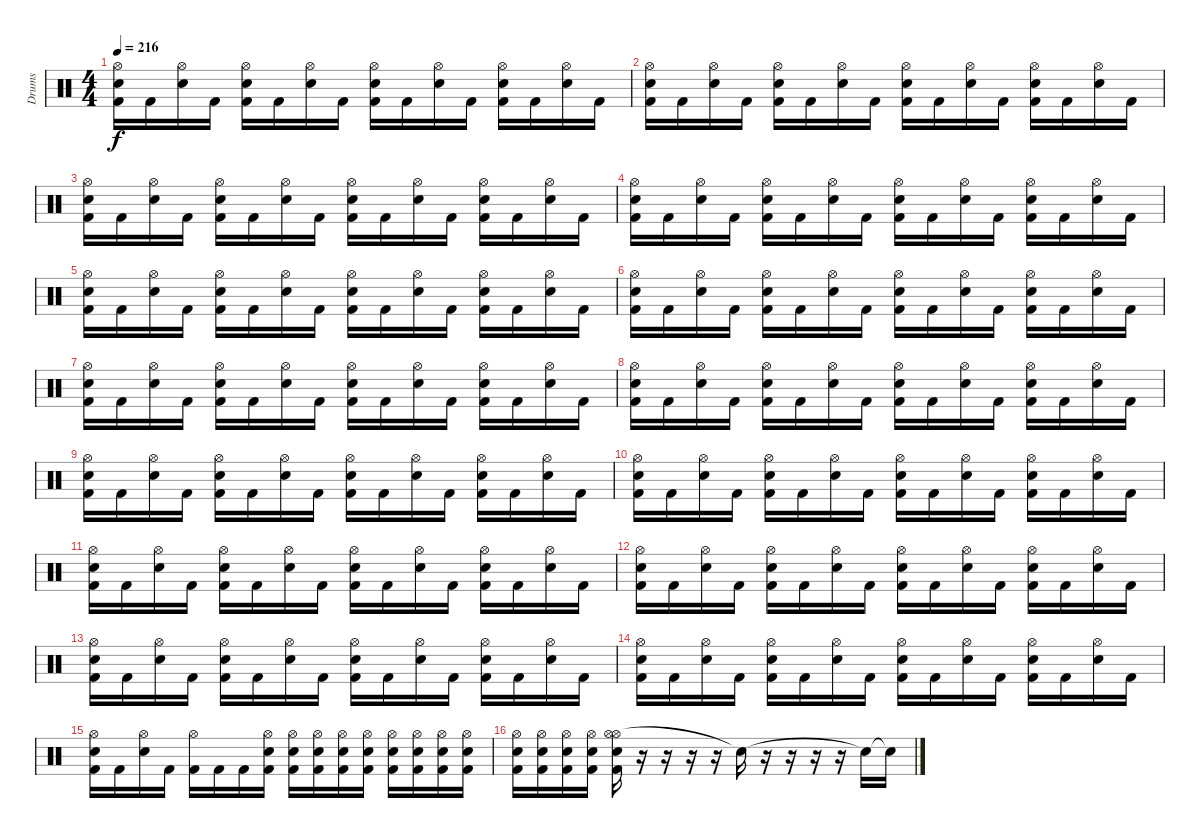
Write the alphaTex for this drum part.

\track ("Drums" "Drums") {instrument percussion}
\staff {score}
\articulation defaults
\ts (4 4)
\tempo 216
\clef neutral
\ks c
("Hi-Hat (open)" "Snare (hit) 2" "Kick (hit) 2").16{dy f} "Kick (hit) 2".16 ("Hi-Hat (open)" "Snare (hit) 2").16 "Kick (hit) 2".16 ("Hi-Hat (open)" "Snare (hit) 2" "Kick (hit) 2").16 "Kick (hit) 2".16 ("Hi-Hat (open)" "Snare (hit) 2").16 "Kick (hit) 2".16 ("Hi-Hat (open)" "Snare (hit) 2" "Kick (hit) 2").16 "Kick (hit) 2".16 ("Hi-Hat (open)" "Snare (hit) 2").16 "Kick (hit) 2".16 ("Hi-Hat (open)" "Snare (hit) 2" "Kick (hit) 2").16 "Kick (hit) 2".16 ("Hi-Hat (open)" "Snare (hit) 2").16 "Kick (hit) 2".16 |
("Hi-Hat (open)" "Snare (hit) 2" "Kick (hit) 2").16 "Kick (hit) 2".16 ("Hi-Hat (open)" "Snare (hit) 2").16 "Kick (hit) 2".16 ("Hi-Hat (open)" "Snare (hit) 2" "Kick (hit) 2").16 "Kick (hit) 2".16 ("Hi-Hat (open)" "Snare (hit) 2").16 "Kick (hit) 2".16 ("Hi-Hat (open)" "Snare (hit) 2" "Kick (hit) 2").16 "Kick (hit) 2".16 ("Hi-Hat (open)" "Snare (hit) 2").16 "Kick (hit) 2".16 ("Hi-Hat (open)" "Snare (hit) 2" "Kick (hit) 2").16 "Kick (hit) 2".16 ("Hi-Hat (open)" "Snare (hit) 2").16 "Kick (hit) 2".16 |
("Hi-Hat (open)" "Snare (hit) 2" "Kick (hit) 2").16 "Kick (hit) 2".16 ("Hi-Hat (open)" "Snare (hit) 2").16 "Kick (hit) 2".16 ("Hi-Hat (open)" "Snare (hit) 2" "Kick (hit) 2").16 "Kick (hit) 2".16 ("Hi-Hat (open)" "Snare (hit) 2").16 "Kick (hit) 2".16 ("Hi-Hat (open)" "Snare (hit) 2" "Kick (hit) 2").16 "Kick (hit) 2".16 ("Hi-Hat (open)" "Snare (hit) 2").16 "Kick (hit) 2".16 ("Hi-Hat (open)" "Snare (hit) 2" "Kick (hit) 2").16 "Kick (hit) 2".16 ("Hi-Hat (open)" "Snare (hit) 2").16 "Kick (hit) 2".16 |
("Hi-Hat (open)" "Snare (hit) 2" "Kick (hit) 2").16 "Kick (hit) 2".16 ("Hi-Hat (open)" "Snare (hit) 2").16 "Kick (hit) 2".16 ("Hi-Hat (open)" "Snare (hit) 2" "Kick (hit) 2").16 "Kick (hit) 2".16 ("Hi-Hat (open)" "Snare (hit) 2").16 "Kick (hit) 2".16 ("Hi-Hat (open)" "Snare (hit) 2" "Kick (hit) 2").16 "Kick (hit) 2".16 ("Hi-Hat (open)" "Snare (hit) 2").16 "Kick (hit) 2".16 ("Hi-Hat (open)" "Snare (hit) 2" "Kick (hit) 2").16 "Kick (hit) 2".16 ("Hi-Hat (open)" "Snare (hit) 2").16 "Kick (hit) 2".16 |
("Hi-Hat (open)" "Snare (hit) 2" "Kick (hit) 2").16 "Kick (hit) 2".16 ("Hi-Hat (open)" "Snare (hit) 2").16 "Kick (hit) 2".16 ("Hi-Hat (open)" "Snare (hit) 2" "Kick (hit) 2").16 "Kick (hit) 2".16 ("Hi-Hat (open)" "Snare (hit) 2").16 "Kick (hit) 2".16 ("Hi-Hat (open)" "Snare (hit) 2" "Kick (hit) 2").16 "Kick (hit) 2".16 ("Hi-Hat (open)" "Snare (hit) 2").16 "Kick (hit) 2".16 ("Hi-Hat (open)" "Snare (hit) 2" "Kick (hit) 2").16 "Kick (hit) 2".16 ("Hi-Hat (open)" "Snare (hit) 2").16 "Kick (hit) 2".16 |
("Hi-Hat (open)" "Snare (hit) 2" "Kick (hit) 2").16 "Kick (hit) 2".16 ("Hi-Hat (open)" "Snare (hit) 2").16 "Kick (hit) 2".16 ("Hi-Hat (open)" "Snare (hit) 2" "Kick (hit) 2").16 "Kick (hit) 2".16 ("Hi-Hat (open)" "Snare (hit) 2").16 "Kick (hit) 2".16 ("Hi-Hat (open)" "Snare (hit) 2" "Kick (hit) 2").16 "Kick (hit) 2".16 ("Hi-Hat (open)" "Snare (hit) 2").16 "Kick (hit) 2".16 ("Hi-Hat (open)" "Snare (hit) 2" "Kick (hit) 2").16 "Kick (hit) 2".16 ("Hi-Hat (open)" "Snare (hit) 2").16 "Kick (hit) 2".16 |
("Hi-Hat (open)" "Snare (hit) 2" "Kick (hit) 2").16 "Kick (hit) 2".16 ("Hi-Hat (open)" "Snare (hit) 2").16 "Kick (hit) 2".16 ("Hi-Hat (open)" "Snare (hit) 2" "Kick (hit) 2").16 "Kick (hit) 2".16 ("Hi-Hat (open)" "Snare (hit) 2").16 "Kick (hit) 2".16 ("Hi-Hat (open)" "Snare (hit) 2" "Kick (hit) 2").16 "Kick (hit) 2".16 ("Hi-Hat (open)" "Snare (hit) 2").16 "Kick (hit) 2".16 ("Hi-Hat (open)" "Snare (hit) 2" "Kick (hit) 2").16 "Kick (hit) 2".16 ("Hi-Hat (open)" "Snare (hit) 2").16 "Kick (hit) 2".16 |
("Hi-Hat (open)" "Snare (hit) 2" "Kick (hit) 2").16 "Kick (hit) 2".16 ("Hi-Hat (open)" "Snare (hit) 2").16 "Kick (hit) 2".16 ("Hi-Hat (open)" "Snare (hit) 2" "Kick (hit) 2").16 "Kick (hit) 2".16 ("Hi-Hat (open)" "Snare (hit) 2").16 "Kick (hit) 2".16 ("Hi-Hat (open)" "Snare (hit) 2" "Kick (hit) 2").16 "Kick (hit) 2".16 ("Hi-Hat (open)" "Snare (hit) 2").16 "Kick (hit) 2".16 ("Hi-Hat (open)" "Snare (hit) 2" "Kick (hit) 2").16 "Kick (hit) 2".16 ("Hi-Hat (open)" "Snare (hit) 2").16 "Kick (hit) 2".16 |
("Hi-Hat (open)" "Snare (hit) 2" "Kick (hit) 2").16 "Kick (hit) 2".16 ("Hi-Hat (open)" "Snare (hit) 2").16 "Kick (hit) 2".16 ("Hi-Hat (open)" "Snare (hit) 2" "Kick (hit) 2").16 "Kick (hit) 2".16 ("Hi-Hat (open)" "Snare (hit) 2").16 "Kick (hit) 2".16 ("Hi-Hat (open)" "Snare (hit) 2" "Kick (hit) 2").16 "Kick (hit) 2".16 ("Hi-Hat (open)" "Snare (hit) 2").16 "Kick (hit) 2".16 ("Hi-Hat (open)" "Snare (hit) 2" "Kick (hit) 2").16 "Kick (hit) 2".16 ("Hi-Hat (open)" "Snare (hit) 2").16 "Kick (hit) 2".16 |
("Hi-Hat (open)" "Snare (hit) 2" "Kick (hit) 2").16 "Kick (hit) 2".16 ("Hi-Hat (open)" "Snare (hit) 2").16 "Kick (hit) 2".16 ("Hi-Hat (open)" "Snare (hit) 2" "Kick (hit) 2").16 "Kick (hit) 2".16 ("Hi-Hat (open)" "Snare (hit) 2").16 "Kick (hit) 2".16 ("Hi-Hat (open)" "Snare (hit) 2" "Kick (hit) 2").16 "Kick (hit) 2".16 ("Hi-Hat (open)" "Snare (hit) 2").16 "Kick (hit) 2".16 ("Hi-Hat (open)" "Snare (hit) 2" "Kick (hit) 2").16 "Kick (hit) 2".16 ("Hi-Hat (open)" "Snare (hit) 2").16 "Kick (hit) 2".16 |
("Hi-Hat (open)" "Snare (hit) 2" "Kick (hit) 2").16 "Kick (hit) 2".16 ("Hi-Hat (open)" "Snare (hit) 2").16 "Kick (hit) 2".16 ("Hi-Hat (open)" "Snare (hit) 2" "Kick (hit) 2").16 "Kick (hit) 2".16 ("Hi-Hat (open)" "Snare (hit) 2").16 "Kick (hit) 2".16 ("Hi-Hat (open)" "Snare (hit) 2" "Kick (hit) 2").16 "Kick (hit) 2".16 ("Hi-Hat (open)" "Snare (hit) 2").16 "Kick (hit) 2".16 ("Hi-Hat (open)" "Snare (hit) 2" "Kick (hit) 2").16 "Kick (hit) 2".16 ("Hi-Hat (open)" "Snare (hit) 2").16 "Kick (hit) 2".16 |
("Hi-Hat (open)" "Snare (hit) 2" "Kick (hit) 2").16 "Kick (hit) 2".16 ("Hi-Hat (open)" "Snare (hit) 2").16 "Kick (hit) 2".16 ("Hi-Hat (open)" "Snare (hit) 2" "Kick (hit) 2").16 "Kick (hit) 2".16 ("Hi-Hat (open)" "Snare (hit) 2").16 "Kick (hit) 2".16 ("Hi-Hat (open)" "Snare (hit) 2" "Kick (hit) 2").16 "Kick (hit) 2".16 ("Hi-Hat (open)" "Snare (hit) 2").16 "Kick (hit) 2".16 ("Hi-Hat (open)" "Snare (hit) 2" "Kick (hit) 2").16 "Kick (hit) 2".16 ("Hi-Hat (open)" "Snare (hit) 2").16 "Kick (hit) 2".16 |
("Hi-Hat (open)" "Snare (hit) 2" "Kick (hit) 2").16 "Kick (hit) 2".16 ("Hi-Hat (open)" "Snare (hit) 2").16 "Kick (hit) 2".16 ("Hi-Hat (open)" "Snare (hit) 2" "Kick (hit) 2").16 "Kick (hit) 2".16 ("Hi-Hat (open)" "Snare (hit) 2").16 "Kick (hit) 2".16 ("Hi-Hat (open)" "Snare (hit) 2" "Kick (hit) 2").16 "Kick (hit) 2".16 ("Hi-Hat (open)" "Snare (hit) 2").16 "Kick (hit) 2".16 ("Hi-Hat (open)" "Snare (hit) 2" "Kick (hit) 2").16 "Kick (hit) 2".16 ("Hi-Hat (open)" "Snare (hit) 2").16 "Kick (hit) 2".16 |
("Hi-Hat (open)" "Snare (hit) 2" "Kick (hit) 2").16 "Kick (hit) 2".16 ("Hi-Hat (open)" "Snare (hit) 2").16 "Kick (hit) 2".16 ("Hi-Hat (open)" "Snare (hit) 2" "Kick (hit) 2").16 "Kick (hit) 2".16 ("Hi-Hat (open)" "Snare (hit) 2").16 "Kick (hit) 2".16 ("Hi-Hat (open)" "Snare (hit) 2" "Kick (hit) 2").16 "Kick (hit) 2".16 ("Hi-Hat (open)" "Snare (hit) 2").16 "Kick (hit) 2".16 ("Hi-Hat (open)" "Snare (hit) 2" "Kick (hit) 2").16 "Kick (hit) 2".16 ("Hi-Hat (open)" "Snare (hit) 2").16 "Kick (hit) 2".16 |
("Hi-Hat (open)" "Snare (hit) 2" "Kick (hit) 2").16 "Kick (hit) 2".16 ("Hi-Hat (open)" "Snare (hit) 2").16 "Kick (hit) 2".16 ("Hi-Hat (open)" "Kick (hit) 2").16 "Kick (hit) 2".16 "Kick (hit) 2".16 ("Hi-Hat (open)" "Snare (hit) 2" "Kick (hit) 2").16 ("Hi-Hat (open)" "Snare (hit) 2" "Kick (hit) 2").16 ("Hi-Hat (open)" "Snare (hit) 2" "Kick (hit) 2").16 ("Hi-Hat (open)" "Snare (hit) 2" "Kick (hit) 2").16 ("Hi-Hat (open)" "Snare (hit) 2" "Kick (hit) 2").16 ("Hi-Hat (open)" "Snare (hit) 2" "Kick (hit) 2").16 ("Hi-Hat (open)" "Snare (hit) 2" "Kick (hit) 2").16 ("Hi-Hat (open)" "Snare (hit) 2" "Kick (hit) 2").16 ("Hi-Hat (open)" "Snare (hit) 2" "Kick (hit) 2").16 |
("Hi-Hat (open)" "Snare (hit) 2" "Kick (hit) 2").16 ("Hi-Hat (open)" "Snare (hit) 2" "Kick (hit) 2").16 ("Hi-Hat (open)" "Snare (hit) 2" "Kick (hit) 2").16 ("Hi-Hat (open)" "Snare (hit) 2" "Kick (hit) 2").16 ("Hi-Hat (open)" "Hi-Hat (open)" "Snare (hit) 2" "Kick (hit) 2").16 r.16 r.16 r.16 r.16 "Snare (hit)"{t}.16 r.16 r.16 r.16 r.16 "Snare (hit)"{t}.16 "Snare (hit)"{t}.16
